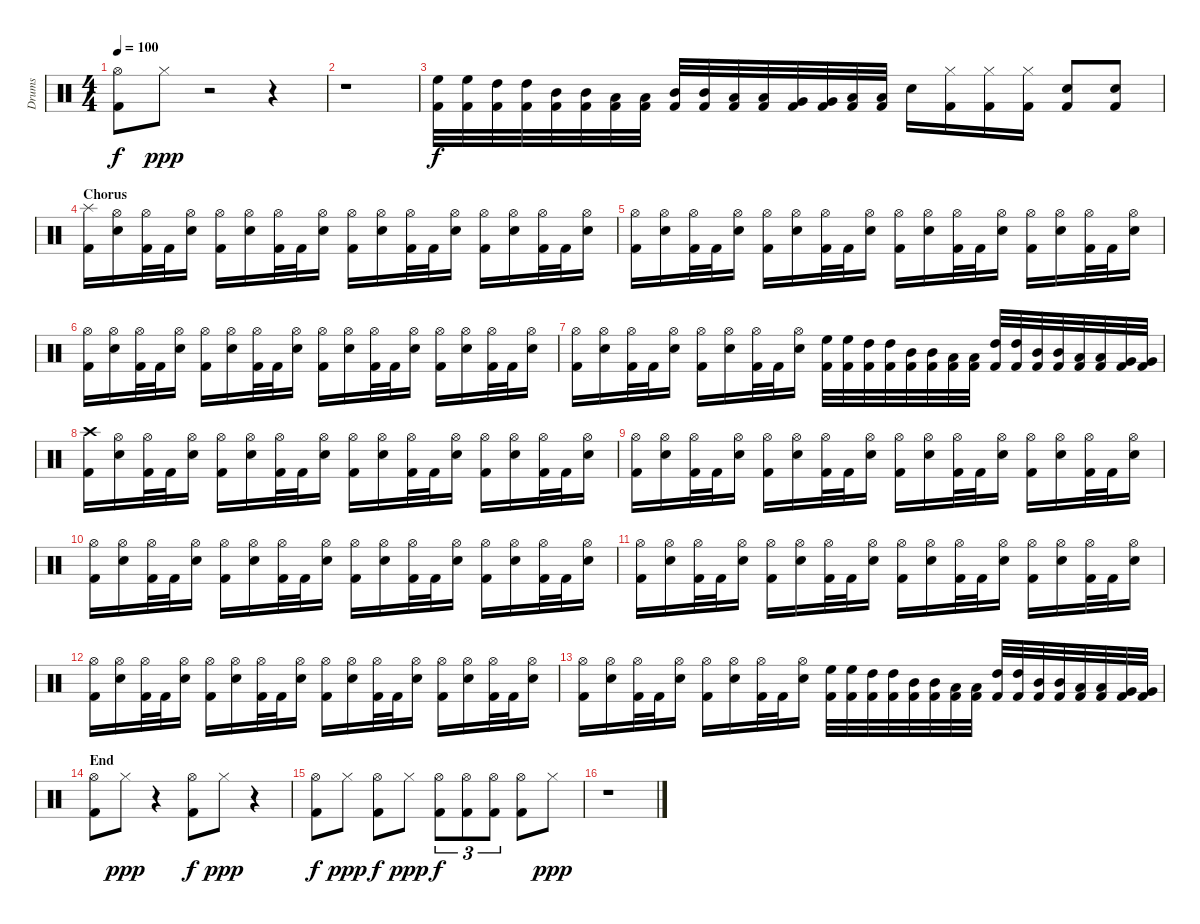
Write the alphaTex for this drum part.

\track ("Drums" "Drums") {instrument percussion}
\staff {score}
\articulation defaults
\ts (4 4)
\tempo 100
\clef neutral
\ks c
("Kick (hit) 2" "Hi-Hat (open)").8{dy f} "Hi-Hat (closed)".8{dy ppp} r.2 r.4 |
r.1 |
("Kick (hit) 2" "High Floor Tom (hit)").32{dy f} ("Kick (hit) 2" "High Floor Tom (hit)").32 ("Kick (hit) 2" "High Tom (hit)").32 ("Kick (hit) 2" "High Tom (hit)").32 ("Kick (hit) 2" "Mid Tom (hit)").32 ("Kick (hit) 2" "Mid Tom (hit)").32 ("Kick (hit) 2" "Low Tom (hit)").32 ("Kick (hit) 2" "Low Tom (hit)").32 ("Kick (hit) 2" "Mid Tom (hit)").32 ("Kick (hit) 2" "Mid Tom (hit)").32 ("Kick (hit) 2" "Low Tom (hit)").32 ("Kick (hit) 2" "Low Tom (hit)").32 ("Kick (hit) 2" "Very Low Tom (hit)").32 ("Kick (hit) 2" "Very Low Tom (hit)").32 ("Kick (hit) 2" "Low Floor Tom (hit)").32 ("Kick (hit) 2" "Low Floor Tom (hit)").32 "Electric Snare (hit)".16 ("Kick (hit) 2" "Hi-Hat (closed)").16 ("Kick (hit) 2" "Hi-Hat (closed)").16 ("Kick (hit) 2" "Hi-Hat (closed)").16 ("Kick (hit) 2" "Electric Snare (hit)").8 ("Kick (hit) 2" "Electric Snare (hit)").8 |
\section ("" "Chorus")
("Kick (hit) 2" "Splash (hit)").16 ("Electric Snare (hit)" "Hi-Hat (open)").16 ("Kick (hit) 2" "Hi-Hat (open)").32 "Kick (hit) 2".32 ("Electric Snare (hit)" "Hi-Hat (open)").16 ("Kick (hit) 2" "Hi-Hat (open)").16 ("Electric Snare (hit)" "Hi-Hat (open)").16 ("Kick (hit) 2" "Hi-Hat (open)").32 "Kick (hit) 2".32 ("Electric Snare (hit)" "Hi-Hat (open)").16 ("Kick (hit) 2" "Hi-Hat (open)").16 ("Electric Snare (hit)" "Hi-Hat (open)").16 ("Kick (hit) 2" "Hi-Hat (open)").32 "Kick (hit) 2".32 ("Electric Snare (hit)" "Hi-Hat (open)").16 ("Kick (hit) 2" "Hi-Hat (open)").16 ("Electric Snare (hit)" "Hi-Hat (open)").16 ("Kick (hit) 2" "Hi-Hat (open)").32 "Kick (hit) 2".32 ("Electric Snare (hit)" "Hi-Hat (open)").16 |
("Kick (hit) 2" "Hi-Hat (open)").16 ("Electric Snare (hit)" "Hi-Hat (open)").16 ("Kick (hit) 2" "Hi-Hat (open)").32 "Kick (hit) 2".32 ("Electric Snare (hit)" "Hi-Hat (open)").16 ("Kick (hit) 2" "Hi-Hat (open)").16 ("Electric Snare (hit)" "Hi-Hat (open)").16 ("Kick (hit) 2" "Hi-Hat (open)").32 "Kick (hit) 2".32 ("Electric Snare (hit)" "Hi-Hat (open)").16 ("Kick (hit) 2" "Hi-Hat (open)").16 ("Electric Snare (hit)" "Hi-Hat (open)").16 ("Kick (hit) 2" "Hi-Hat (open)").32 "Kick (hit) 2".32 ("Electric Snare (hit)" "Hi-Hat (open)").16 ("Kick (hit) 2" "Hi-Hat (open)").16 ("Electric Snare (hit)" "Hi-Hat (open)").16 ("Kick (hit) 2" "Hi-Hat (open)").32 "Kick (hit) 2".32 ("Electric Snare (hit)" "Hi-Hat (open)").16 |
("Kick (hit) 2" "Hi-Hat (open)").16 ("Electric Snare (hit)" "Hi-Hat (open)").16 ("Kick (hit) 2" "Hi-Hat (open)").32 "Kick (hit) 2".32 ("Electric Snare (hit)" "Hi-Hat (open)").16 ("Kick (hit) 2" "Hi-Hat (open)").16 ("Electric Snare (hit)" "Hi-Hat (open)").16 ("Kick (hit) 2" "Hi-Hat (open)").32 "Kick (hit) 2".32 ("Electric Snare (hit)" "Hi-Hat (open)").16 ("Kick (hit) 2" "Hi-Hat (open)").16 ("Electric Snare (hit)" "Hi-Hat (open)").16 ("Kick (hit) 2" "Hi-Hat (open)").32 "Kick (hit) 2".32 ("Electric Snare (hit)" "Hi-Hat (open)").16 ("Kick (hit) 2" "Hi-Hat (open)").16 ("Electric Snare (hit)" "Hi-Hat (open)").16 ("Kick (hit) 2" "Hi-Hat (open)").32 "Kick (hit) 2".32 ("Electric Snare (hit)" "Hi-Hat (open)").16 |
("Kick (hit) 2" "Hi-Hat (open)").16 ("Electric Snare (hit)" "Hi-Hat (open)").16 ("Kick (hit) 2" "Hi-Hat (open)").32 "Kick (hit) 2".32 ("Electric Snare (hit)" "Hi-Hat (open)").16 ("Kick (hit) 2" "Hi-Hat (open)").16 ("Electric Snare (hit)" "Hi-Hat (open)").16 ("Kick (hit) 2" "Hi-Hat (open)").32 "Kick (hit) 2".32 ("Electric Snare (hit)" "Hi-Hat (open)").16 ("Kick (hit) 2" "High Floor Tom (hit)").32 ("Kick (hit) 2" "High Floor Tom (hit)").32 ("Kick (hit) 2" "High Tom (hit)").32 ("Kick (hit) 2" "High Tom (hit)").32 ("Kick (hit) 2" "Mid Tom (hit)").32 ("Kick (hit) 2" "Mid Tom (hit)").32 ("Kick (hit) 2" "Low Tom (hit)").32 ("Kick (hit) 2" "Low Tom (hit)").32 ("Kick (hit) 2" "High Tom (hit)").32 ("Kick (hit) 2" "High Tom (hit)").32 ("Kick (hit) 2" "Mid Tom (hit)").32 ("Kick (hit) 2" "Mid Tom (hit)").32 ("Kick (hit) 2" "Low Tom (hit)").32 ("Kick (hit) 2" "Low Tom (hit)").32 ("Kick (hit) 2" "Very Low Tom (hit)").32 ("Kick (hit) 2" "Very Low Tom (hit)").32 |
("Kick (hit) 2" "Crash high (hit)").16 ("Electric Snare (hit)" "Hi-Hat (open)").16 ("Kick (hit) 2" "Hi-Hat (open)").32 "Kick (hit) 2".32 ("Electric Snare (hit)" "Hi-Hat (open)").16 ("Kick (hit) 2" "Hi-Hat (open)").16 ("Electric Snare (hit)" "Hi-Hat (open)").16 ("Kick (hit) 2" "Hi-Hat (open)").32 "Kick (hit) 2".32 ("Electric Snare (hit)" "Hi-Hat (open)").16 ("Kick (hit) 2" "Hi-Hat (open)").16 ("Electric Snare (hit)" "Hi-Hat (open)").16 ("Kick (hit) 2" "Hi-Hat (open)").32 "Kick (hit) 2".32 ("Electric Snare (hit)" "Hi-Hat (open)").16 ("Kick (hit) 2" "Hi-Hat (open)").16 ("Electric Snare (hit)" "Hi-Hat (open)").16 ("Kick (hit) 2" "Hi-Hat (open)").32 "Kick (hit) 2".32 ("Electric Snare (hit)" "Hi-Hat (open)").16 |
("Kick (hit) 2" "Hi-Hat (open)").16 ("Electric Snare (hit)" "Hi-Hat (open)").16 ("Kick (hit) 2" "Hi-Hat (open)").32 "Kick (hit) 2".32 ("Electric Snare (hit)" "Hi-Hat (open)").16 ("Kick (hit) 2" "Hi-Hat (open)").16 ("Electric Snare (hit)" "Hi-Hat (open)").16 ("Kick (hit) 2" "Hi-Hat (open)").32 "Kick (hit) 2".32 ("Electric Snare (hit)" "Hi-Hat (open)").16 ("Kick (hit) 2" "Hi-Hat (open)").16 ("Electric Snare (hit)" "Hi-Hat (open)").16 ("Kick (hit) 2" "Hi-Hat (open)").32 "Kick (hit) 2".32 ("Electric Snare (hit)" "Hi-Hat (open)").16 ("Kick (hit) 2" "Hi-Hat (open)").16 ("Electric Snare (hit)" "Hi-Hat (open)").16 ("Kick (hit) 2" "Hi-Hat (open)").32 "Kick (hit) 2".32 ("Electric Snare (hit)" "Hi-Hat (open)").16 |
\section ("" "")
("Kick (hit) 2" "Hi-Hat (open)").16 ("Electric Snare (hit)" "Hi-Hat (open)").16 ("Kick (hit) 2" "Hi-Hat (open)").32 "Kick (hit) 2".32 ("Electric Snare (hit)" "Hi-Hat (open)").16 ("Kick (hit) 2" "Hi-Hat (open)").16 ("Electric Snare (hit)" "Hi-Hat (open)").16 ("Kick (hit) 2" "Hi-Hat (open)").32 "Kick (hit) 2".32 ("Electric Snare (hit)" "Hi-Hat (open)").16 ("Kick (hit) 2" "Hi-Hat (open)").16 ("Electric Snare (hit)" "Hi-Hat (open)").16 ("Kick (hit) 2" "Hi-Hat (open)").32 "Kick (hit) 2".32 ("Electric Snare (hit)" "Hi-Hat (open)").16 ("Kick (hit) 2" "Hi-Hat (open)").16 ("Electric Snare (hit)" "Hi-Hat (open)").16 ("Kick (hit) 2" "Hi-Hat (open)").32 "Kick (hit) 2".32 ("Electric Snare (hit)" "Hi-Hat (open)").16 |
("Kick (hit) 2" "Hi-Hat (open)").16 ("Electric Snare (hit)" "Hi-Hat (open)").16 ("Kick (hit) 2" "Hi-Hat (open)").32 "Kick (hit) 2".32 ("Electric Snare (hit)" "Hi-Hat (open)").16 ("Kick (hit) 2" "Hi-Hat (open)").16 ("Electric Snare (hit)" "Hi-Hat (open)").16 ("Kick (hit) 2" "Hi-Hat (open)").32 "Kick (hit) 2".32 ("Electric Snare (hit)" "Hi-Hat (open)").16 ("Kick (hit) 2" "Hi-Hat (open)").16 ("Electric Snare (hit)" "Hi-Hat (open)").16 ("Kick (hit) 2" "Hi-Hat (open)").32 "Kick (hit) 2".32 ("Electric Snare (hit)" "Hi-Hat (open)").16 ("Kick (hit) 2" "Hi-Hat (open)").16 ("Electric Snare (hit)" "Hi-Hat (open)").16 ("Kick (hit) 2" "Hi-Hat (open)").32 "Kick (hit) 2".32 ("Electric Snare (hit)" "Hi-Hat (open)").16 |
("Kick (hit) 2" "Hi-Hat (open)").16 ("Electric Snare (hit)" "Hi-Hat (open)").16 ("Kick (hit) 2" "Hi-Hat (open)").32 "Kick (hit) 2".32 ("Electric Snare (hit)" "Hi-Hat (open)").16 ("Kick (hit) 2" "Hi-Hat (open)").16 ("Electric Snare (hit)" "Hi-Hat (open)").16 ("Kick (hit) 2" "Hi-Hat (open)").32 "Kick (hit) 2".32 ("Electric Snare (hit)" "Hi-Hat (open)").16 ("Kick (hit) 2" "Hi-Hat (open)").16 ("Electric Snare (hit)" "Hi-Hat (open)").16 ("Kick (hit) 2" "Hi-Hat (open)").32 "Kick (hit) 2".32 ("Electric Snare (hit)" "Hi-Hat (open)").16 ("Kick (hit) 2" "Hi-Hat (open)").16 ("Electric Snare (hit)" "Hi-Hat (open)").16 ("Kick (hit) 2" "Hi-Hat (open)").32 "Kick (hit) 2".32 ("Electric Snare (hit)" "Hi-Hat (open)").16 |
("Kick (hit) 2" "Hi-Hat (open)").16 ("Electric Snare (hit)" "Hi-Hat (open)").16 ("Kick (hit) 2" "Hi-Hat (open)").32 "Kick (hit) 2".32 ("Electric Snare (hit)" "Hi-Hat (open)").16 ("Kick (hit) 2" "Hi-Hat (open)").16 ("Electric Snare (hit)" "Hi-Hat (open)").16 ("Kick (hit) 2" "Hi-Hat (open)").32 "Kick (hit) 2".32 ("Electric Snare (hit)" "Hi-Hat (open)").16 ("Kick (hit) 2" "High Floor Tom (hit)").32 ("Kick (hit) 2" "High Floor Tom (hit)").32 ("Kick (hit) 2" "High Tom (hit)").32 ("Kick (hit) 2" "High Tom (hit)").32 ("Kick (hit) 2" "Mid Tom (hit)").32 ("Kick (hit) 2" "Mid Tom (hit)").32 ("Kick (hit) 2" "Low Tom (hit)").32 ("Kick (hit) 2" "Low Tom (hit)").32 ("Kick (hit) 2" "High Tom (hit)").32 ("Kick (hit) 2" "High Tom (hit)").32 ("Kick (hit) 2" "Mid Tom (hit)").32 ("Kick (hit) 2" "Mid Tom (hit)").32 ("Kick (hit) 2" "Low Tom (hit)").32 ("Kick (hit) 2" "Low Tom (hit)").32 ("Kick (hit) 2" "Very Low Tom (hit)").32 ("Kick (hit) 2" "Very Low Tom (hit)").32 |
\section ("" "End")
("Kick (hit) 2" "Hi-Hat (open)").8 "Hi-Hat (closed)".8{dy ppp} r.4 ("Kick (hit) 2" "Hi-Hat (open)").8{dy f} "Hi-Hat (closed)".8{dy ppp} r.4 |
("Kick (hit) 2" "Hi-Hat (open)").8{dy f} "Hi-Hat (closed)".8{dy ppp} ("Kick (hit) 2" "Hi-Hat (open)").8{dy f} "Hi-Hat (closed)".8{dy ppp} ("Kick (hit) 2" "Hi-Hat (open)").8{tu (3 2) dy f} ("Kick (hit) 2" "Hi-Hat (open)").8{tu (3 2)} ("Kick (hit) 2" "Hi-Hat (open)").8{tu (3 2)} ("Kick (hit) 2" "Hi-Hat (open)").8 "Hi-Hat (closed)".8{dy ppp} |
r.1
